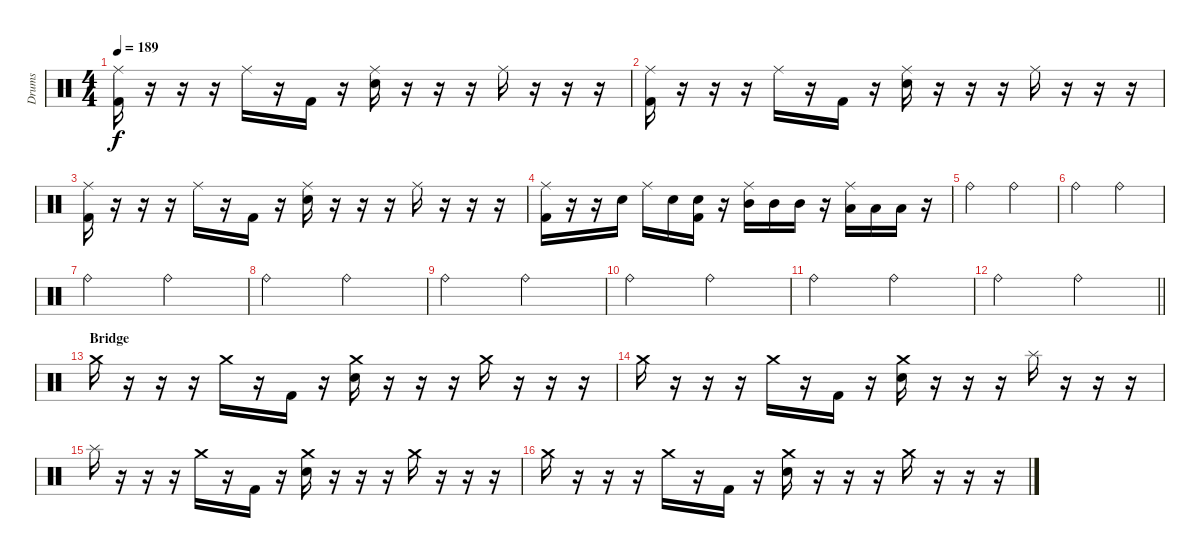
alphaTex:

\track ("Drums" "Drums") {instrument percussion}
\staff {score}
\articulation defaults
\ts (4 4)
\tempo 189
\clef neutral
\ks c
("Ride (middle)" "Kick (hit) 2").16{dy f} r.16 r.16 r.16 "Ride (middle)".16 r.16 "Kick (hit) 2".16 r.16 ("Ride (middle)" "Snare (hit) 2").16 r.16 r.16 r.16 "Ride (middle)".16 r.16 r.16 r.16 |
("Ride (middle)" "Kick (hit) 2").16 r.16 r.16 r.16 "Ride (middle)".16 r.16 "Kick (hit) 2".16 r.16 ("Ride (middle)" "Snare (hit) 2").16 r.16 r.16 r.16 "Ride (middle)".16 r.16 r.16 r.16 |
("Ride (middle)" "Kick (hit) 2").16 r.16 r.16 r.16 "Ride (middle)".16 r.16 "Kick (hit) 2".16 r.16 ("Ride (middle)" "Snare (hit) 2").16 r.16 r.16 r.16 "Ride (middle)".16 r.16 r.16 r.16 |
("Ride (middle)" "Kick (hit) 2").16 r.16 r.16 "Snare (hit) 2".16 "Ride (middle)".16 "Snare (hit) 2".16 ("Snare (hit) 2" "Kick (hit) 2").16 r.16 ("Ride (middle)" "Mid Tom (hit)").16 "Mid Tom (hit)".16 "Mid Tom (hit)".16 r.16 ("Ride (middle)" "Low Tom (hit)").16 "Low Tom (hit)".16 "Low Tom (hit)".16 r.16 |
"Ride (bell)".2 "Ride (bell)".2 |
"Ride (bell)".2 "Ride (bell)".2 |
"Ride (bell)".2 "Ride (bell)".2 |
"Ride (bell)".2 "Ride (bell)".2 |
"Ride (bell)".2 "Ride (bell)".2 |
"Ride (bell)".2 "Ride (bell)".2 |
"Ride (bell)".2 "Ride (bell)".2 |
\barLineRight lightlight "Ride (bell)".2 "Ride (bell)".2
|
\section ("" "Bridge")
"Crash medium (hit)".16 r.16 r.16 r.16 "Crash medium (hit)".16 r.16 "Kick (hit) 2".16 r.16 ("Crash medium (hit)" "Electric Snare (hit)").16 r.16 r.16 r.16 "Crash medium (hit)".16 r.16 r.16 r.16 |
"Crash medium (hit)".16 r.16 r.16 r.16 "Crash medium (hit)".16 r.16 "Kick (hit) 2".16 r.16 ("Crash medium (hit)" "Electric Snare (hit)").16 r.16 r.16 r.16 "Splash (hit)".16 r.16 r.16 r.16 |
"Splash (hit)".16 r.16 r.16 r.16 "Crash medium (hit)".16 r.16 "Kick (hit) 2".16 r.16 ("Crash medium (hit)" "Electric Snare (hit)").16 r.16 r.16 r.16 "Crash medium (hit)".16 r.16 r.16 r.16 |
"Crash medium (hit)".16 r.16 r.16 r.16 "Crash medium (hit)".16 r.16 "Kick (hit) 2".16 r.16 ("Crash medium (hit)" "Electric Snare (hit)").16 r.16 r.16 r.16 "Crash medium (hit)".16 r.16 r.16 r.16
